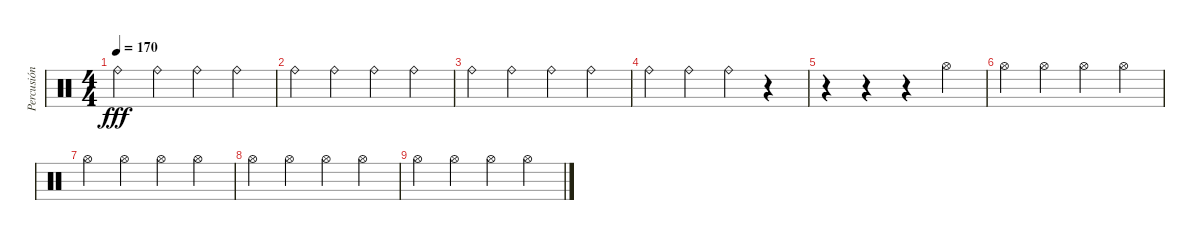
\track ("Percusión" "Percusión") {instrument percussion}
\staff {score}
\articulation defaults
\ts (4 4)
\tempo 170
\clef neutral
\ks c "Ride (bell)".4{dy fff} "Ride (bell)".4 "Ride (bell)".4 "Ride (bell)".4
|
"Ride (bell)".4 "Ride (bell)".4 "Ride (bell)".4 "Ride (bell)".4 |
"Ride (bell)".4 "Ride (bell)".4 "Ride (bell)".4 "Ride (bell)".4 |
"Ride (bell)".4 "Ride (bell)".4 "Ride (bell)".4 r.4 |
r.4 r.4 r.4 "Hi-Hat (open)".4 |
"Hi-Hat (open)".4 "Hi-Hat (open)".4 "Hi-Hat (open)".4 "Hi-Hat (open)".4 |
"Hi-Hat (open)".4 "Hi-Hat (open)".4 "Hi-Hat (open)".4 "Hi-Hat (open)".4 |
"Hi-Hat (open)".4 "Hi-Hat (open)".4 "Hi-Hat (open)".4 "Hi-Hat (open)".4 |
"Hi-Hat (open)".4 "Hi-Hat (open)".4 "Hi-Hat (open)".4 "Hi-Hat (open)".4
